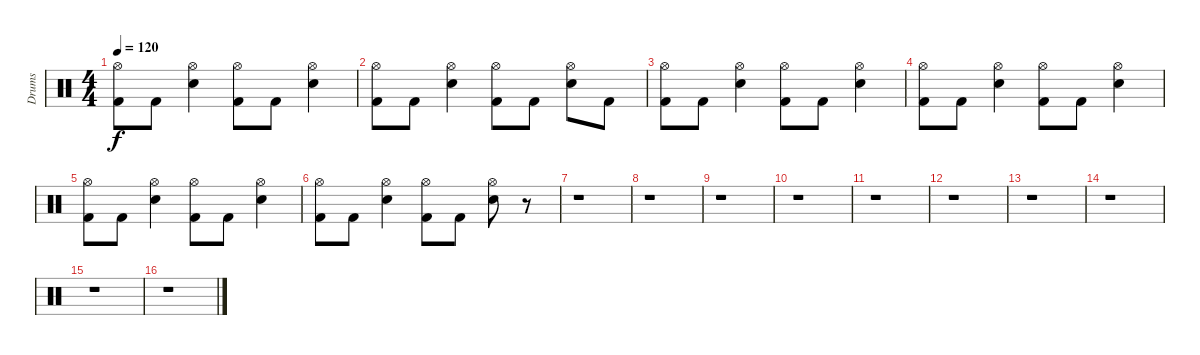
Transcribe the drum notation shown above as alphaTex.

\track ("Drums" "Drums") {instrument percussion}
\staff {score}
\articulation defaults
\ts (4 4)
\tempo 120
\clef neutral
\ks c
("Hi-Hat (open)" "Kick (hit) 2").8{dy f} "Kick (hit) 2".8 ("Hi-Hat (open)" "Electric Snare (hit)").4 ("Hi-Hat (open)" "Kick (hit) 2").8 "Kick (hit) 2".8 ("Hi-Hat (open)" "Electric Snare (hit)").4 |
("Hi-Hat (open)" "Kick (hit) 2").8 "Kick (hit) 2".8 ("Hi-Hat (open)" "Electric Snare (hit)").4 ("Hi-Hat (open)" "Kick (hit) 2").8 "Kick (hit) 2".8 ("Hi-Hat (open)" "Electric Snare (hit)").8 "Kick (hit) 2".8 |
("Hi-Hat (open)" "Kick (hit) 2").8 "Kick (hit) 2".8 ("Hi-Hat (open)" "Electric Snare (hit)").4 ("Hi-Hat (open)" "Kick (hit) 2").8 "Kick (hit) 2".8 ("Hi-Hat (open)" "Electric Snare (hit)").4 |
("Hi-Hat (open)" "Kick (hit) 2").8 "Kick (hit) 2".8 ("Hi-Hat (open)" "Electric Snare (hit)").4 ("Hi-Hat (open)" "Kick (hit) 2").8 "Kick (hit) 2".8 ("Hi-Hat (open)" "Electric Snare (hit)").4 |
("Hi-Hat (open)" "Kick (hit) 2").8 "Kick (hit) 2".8 ("Hi-Hat (open)" "Electric Snare (hit)").4 ("Hi-Hat (open)" "Kick (hit) 2").8 "Kick (hit) 2".8 ("Hi-Hat (open)" "Electric Snare (hit)").4 |
("Hi-Hat (open)" "Kick (hit) 2").8 "Kick (hit) 2".8 ("Hi-Hat (open)" "Electric Snare (hit)").4 ("Hi-Hat (open)" "Kick (hit) 2").8 "Kick (hit) 2".8 ("Hi-Hat (open)" "Electric Snare (hit)").8 r.8 |
r.1 |
r.1 |
r.1 |
r.1 |
r.1 |
r.1 |
r.1 |
r.1 |
r.1 |
r.1
